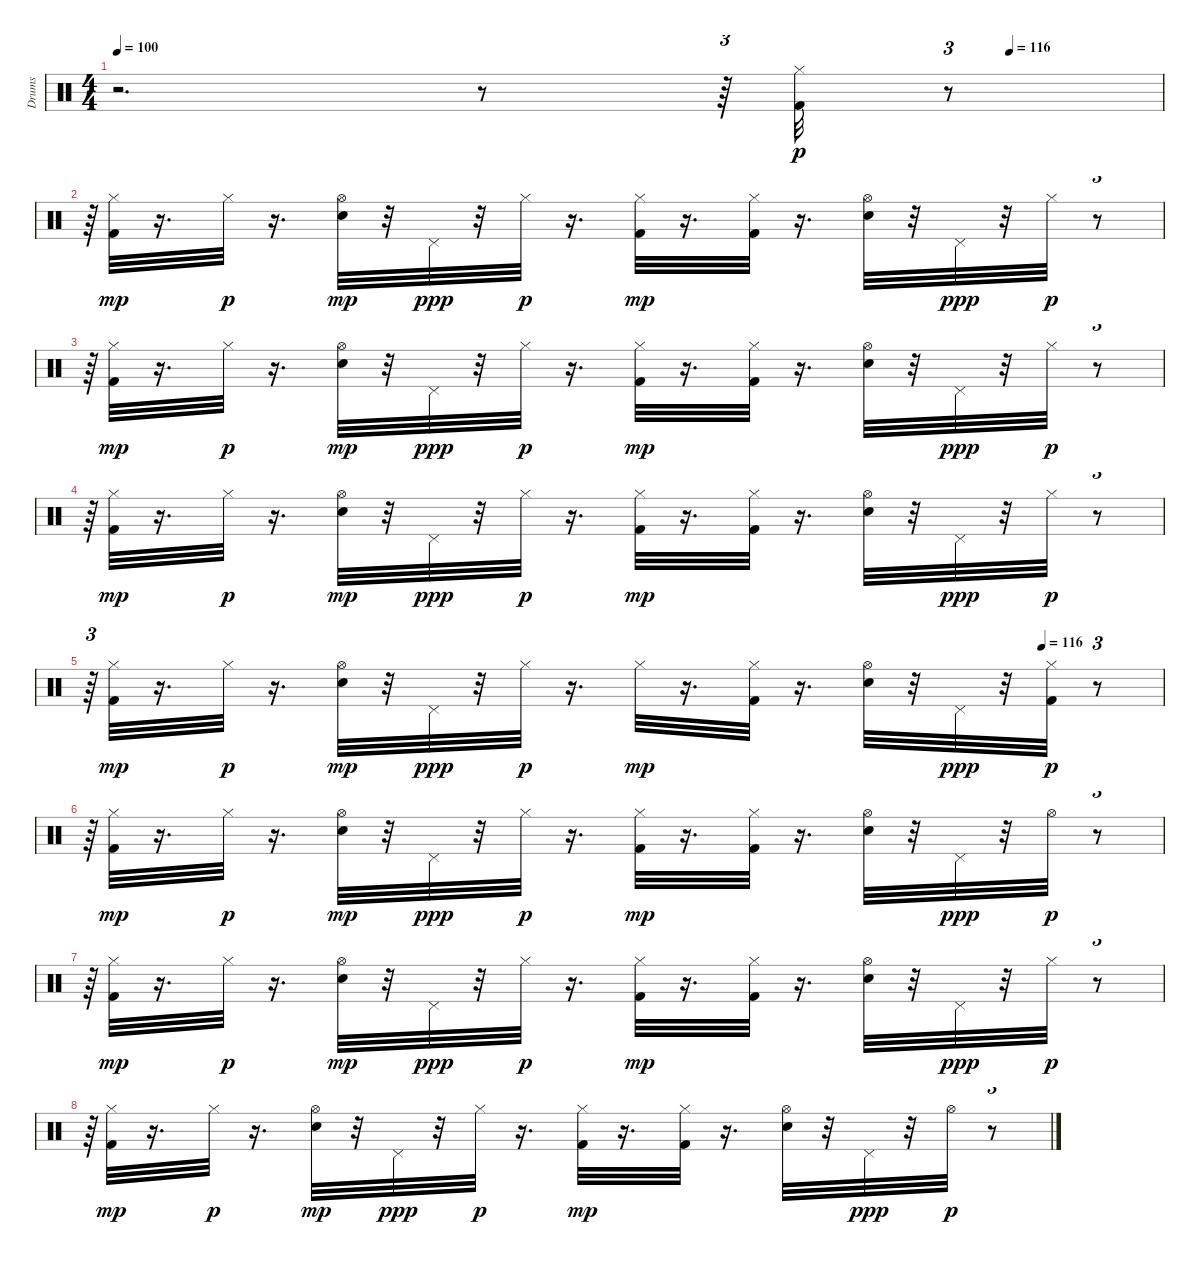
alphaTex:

\track ("Drums" "Drums") {instrument percussion}
\staff {score}
\articulation defaults
\ts (4 4)
\tempo 100
\tempo (116 0.8541666666666666)
\clef neutral
\ks c
r.2{d dy f} r.8 r.64{tu (3 2)} ("Hi-Hat (closed)" "Kick (hit) 2").32{dy p} r.8{tu (3 2)} |
r.64{tu (3 2)} ("Kick (hit) 2" "Hi-Hat (closed)").32{dy mp} r.16{d} "Hi-Hat (closed)".32{dy p} r.16{d} ("Snare (hit) 2" "Hi-Hat (open)").32{dy mp} r.32 "Pedal Hi-Hat (hit)".32{dy ppp} r.32 "Hi-Hat (closed)".32{dy p} r.16{d} ("Hi-Hat (closed)" "Kick (hit) 2").32{dy mp} r.16{d} ("Hi-Hat (closed)" "Kick (hit) 2").32 r.16{d} ("Snare (hit) 2" "Hi-Hat (open)").32 r.32 "Pedal Hi-Hat (hit)".32{dy ppp} r.32 "Hi-Hat (closed)".32{dy p} r.8{tu (3 2)} |
r.64{tu (3 2)} ("Kick (hit) 2" "Hi-Hat (closed)").32{dy mp} r.16{d} "Hi-Hat (closed)".32{dy p} r.16{d} ("Snare (hit) 2" "Hi-Hat (open)").32{dy mp} r.32 "Pedal Hi-Hat (hit)".32{dy ppp} r.32 "Hi-Hat (closed)".32{dy p} r.16{d} ("Hi-Hat (closed)" "Kick (hit) 2").32{dy mp} r.16{d} ("Hi-Hat (closed)" "Kick (hit) 2").32 r.16{d} ("Snare (hit) 2" "Hi-Hat (open)").32 r.32 "Pedal Hi-Hat (hit)".32{dy ppp} r.32 "Hi-Hat (closed)".32{dy p} r.8{tu (3 2)} |
r.64{tu (3 2)} ("Kick (hit) 2" "Hi-Hat (closed)").32{dy mp} r.16{d} "Hi-Hat (closed)".32{dy p} r.16{d} ("Snare (hit) 2" "Hi-Hat (open)").32{dy mp} r.32 "Pedal Hi-Hat (hit)".32{dy ppp} r.32 "Hi-Hat (closed)".32{dy p} r.16{d} ("Hi-Hat (closed)" "Kick (hit) 2").32{dy mp} r.16{d} ("Hi-Hat (closed)" "Kick (hit) 2").32 r.16{d} ("Snare (hit) 2" "Hi-Hat (open)").32 r.32 "Pedal Hi-Hat (hit)".32{dy ppp} r.32 "Hi-Hat (closed)".32{dy p} r.8{tu (3 2)} |
\tempo (116 0.8875)
r.64{tu (3 2)} ("Kick (hit) 2" "Hi-Hat (closed)").32{dy mp} r.16{d} "Hi-Hat (closed)".32{dy p} r.16{d} ("Snare (hit) 2" "Hi-Hat (open)").32{dy mp} r.32 "Pedal Hi-Hat (hit)".32{dy ppp} r.32 "Hi-Hat (closed)".32{dy p} r.16{d} "Hi-Hat (closed)".32{dy mp} r.16{d} ("Hi-Hat (closed)" "Kick (hit) 2").32 r.16{d} ("Snare (hit) 2" "Hi-Hat (open)").32 r.32 "Pedal Hi-Hat (hit)".32{dy ppp} r.32 ("Kick (hit) 2" "Hi-Hat (closed)").32{dy p} r.8{tu (3 2)} |
r.64{tu (3 2)} ("Kick (hit) 2" "Hi-Hat (closed)").32{dy mp} r.16{d} "Hi-Hat (closed)".32{dy p} r.16{d} ("Snare (hit) 2" "Hi-Hat (open)").32{dy mp} r.32 "Pedal Hi-Hat (hit)".32{dy ppp} r.32 "Hi-Hat (closed)".32{dy p} r.16{d} ("Hi-Hat (closed)" "Kick (hit) 2").32{dy mp} r.16{d} ("Hi-Hat (closed)" "Kick (hit) 2").32 r.16{d} ("Snare (hit) 2" "Hi-Hat (open)").32 r.32 "Pedal Hi-Hat (hit)".32{dy ppp} r.32 "Hi-Hat (open)".32{dy p} r.8{tu (3 2)} |
r.64{tu (3 2)} ("Kick (hit) 2" "Hi-Hat (closed)").32{dy mp} r.16{d} "Hi-Hat (closed)".32{dy p} r.16{d} ("Snare (hit) 2" "Hi-Hat (open)").32{dy mp} r.32 "Pedal Hi-Hat (hit)".32{dy ppp} r.32 "Hi-Hat (closed)".32{dy p} r.16{d} ("Hi-Hat (closed)" "Kick (hit) 2").32{dy mp} r.16{d} ("Hi-Hat (closed)" "Kick (hit) 2").32 r.16{d} ("Snare (hit) 2" "Hi-Hat (open)").32 r.32 "Pedal Hi-Hat (hit)".32{dy ppp} r.32 "Hi-Hat (closed)".32{dy p} r.8{tu (3 2)} |
r.64{tu (3 2)} ("Kick (hit) 2" "Hi-Hat (closed)").32{dy mp} r.16{d} "Hi-Hat (closed)".32{dy p} r.16{d} ("Snare (hit) 2" "Hi-Hat (open)").32{dy mp} r.32 "Pedal Hi-Hat (hit)".32{dy ppp} r.32 "Hi-Hat (closed)".32{dy p} r.16{d} ("Hi-Hat (closed)" "Kick (hit) 2").32{dy mp} r.16{d} ("Hi-Hat (closed)" "Kick (hit) 2").32 r.16{d} ("Snare (hit) 2" "Hi-Hat (open)").32 r.32 "Pedal Hi-Hat (hit)".32{dy ppp} r.32 "Hi-Hat (open)".32{dy p} r.8{tu (3 2)}
